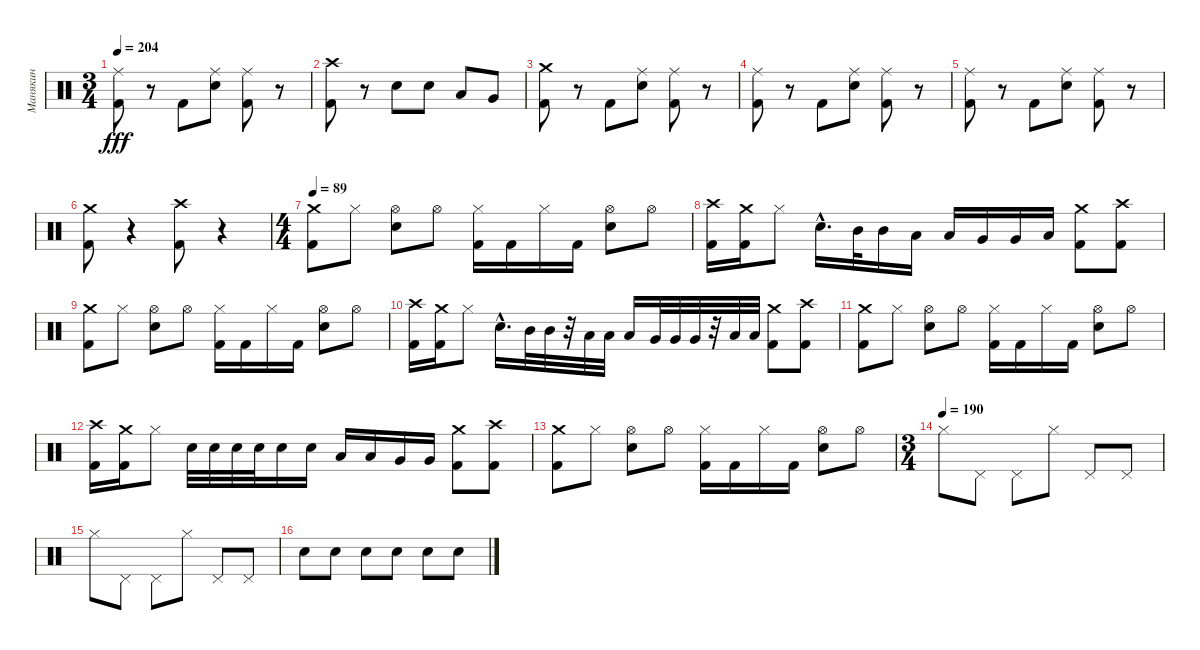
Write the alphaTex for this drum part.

\track ("Манякин" "Манякин") {instrument percussion}
\staff {score}
\articulation defaults
\ts (3 4)
\tempo 204
\clef neutral
\ks c
("Ride (middle)" "Kick (hit) 2").8{dy fff} r.8 "Kick (hit) 2".8 ("Ride (middle)" "Snare (hit) 2").8 ("Ride (middle)" "Kick (hit) 2").8 r.8 |
("Kick (hit) 2" "Crash high (hit)").8 r.8 "Snare (hit) 2".8 "Snare (hit) 2".8 "Low Tom (hit)".8 "Very Low Tom (hit)".8 |
("Kick (hit) 2" "Crash medium (hit)").8 r.8 "Kick (hit) 2".8 ("Ride (middle)" "Snare (hit) 2").8 ("Ride (middle)" "Kick (hit) 2").8 r.8 |
("Ride (middle)" "Kick (hit) 2").8 r.8 "Kick (hit) 2".8 ("Ride (middle)" "Snare (hit) 2").8 ("Ride (middle)" "Kick (hit) 2").8 r.8 |
("Ride (middle)" "Kick (hit) 2").8 r.8 "Kick (hit) 2".8 ("Ride (middle)" "Snare (hit) 2").8 ("Ride (middle)" "Kick (hit) 2").8 r.8 |
("Crash medium (hit)" "Kick (hit) 2").8 r.4 ("Kick (hit) 2" "Crash high (hit)").8 r.4 |
\ts (4 4)
\tempo 89
("Kick (hit) 2" "Crash medium (hit)").8 "Hi-Hat (closed)".8 ("Snare (hit) 2" "Hi-Hat (open)").8 "Hi-Hat (open)".8 ("Kick (hit) 2" "Hi-Hat (closed)").16 "Kick (hit) 2".16 "Hi-Hat (closed)".16 "Kick (hit) 2".16 ("Hi-Hat (open)" "Snare (hit) 2").8 "Hi-Hat (open)".8 |
("Kick (hit) 2" "Crash high (hit)").16 ("Kick (hit) 2" "Crash medium (hit)").16 "Hi-Hat (closed)".8 "Snare (hit) 2"{hac}.16{d} "Mid Tom (hit)".32 "Mid Tom (hit)".16 "Low Tom (hit)".16 "Low Tom (hit)".16 "Very Low Tom (hit)".16 "Very Low Tom (hit)".16 "Low Floor Tom (hit)".16 ("Kick (hit) 2" "Crash medium (hit)").8 ("Kick (hit) 2" "Crash high (hit)").8 |
("Kick (hit) 2" "Crash medium (hit)").8 "Hi-Hat (closed)".8 ("Snare (hit) 2" "Hi-Hat (open)").8 "Hi-Hat (open)".8 ("Kick (hit) 2" "Hi-Hat (closed)").16 "Kick (hit) 2".16 "Hi-Hat (closed)".16 "Kick (hit) 2".16 ("Hi-Hat (open)" "Snare (hit) 2").8 "Hi-Hat (open)".8 |
("Kick (hit) 2" "Crash high (hit)").16 ("Kick (hit) 2" "Crash medium (hit)").16 "Hi-Hat (closed)".8 "Snare (hit) 2"{hac}.16{d} "Mid Tom (hit)".32 "Mid Tom (hit)".32 r.32 "Low Tom (hit)".32 "Low Tom (hit)".32 "Low Tom (hit)".16 "Very Low Tom (hit)".32 "Very Low Tom (hit)".32 "Very Low Tom (hit)".32 r.32 "Low Floor Tom (hit)".32 "Low Floor Tom (hit)".32 ("Crash medium (hit)" "Kick (hit) 2").8 ("Crash high (hit)" "Kick (hit) 2").8 |
("Kick (hit) 2" "Crash medium (hit)").8 "Hi-Hat (closed)".8 ("Snare (hit) 2" "Hi-Hat (open)").8 "Hi-Hat (open)".8 ("Kick (hit) 2" "Hi-Hat (closed)").16 "Kick (hit) 2".16 "Hi-Hat (closed)".16 "Kick (hit) 2".16 ("Hi-Hat (open)" "Snare (hit) 2").8 "Hi-Hat (open)".8 |
("Kick (hit) 2" "Crash high (hit)").16 ("Kick (hit) 2" "Crash medium (hit)").16 "Hi-Hat (closed)".8 "Snare (hit) 2".32 "Snare (hit) 2".32 "Snare (hit) 2".32 "Snare (hit) 2".32 "Snare (hit) 2".16 "Snare (hit) 2".16 "Low Tom (hit)".16 "Low Tom (hit)".16 "Very Low Tom (hit)".16 "Very Low Tom (hit)".16 ("Crash medium (hit)" "Kick (hit) 2").8 ("Crash high (hit)" "Kick (hit) 2").8 |
("Kick (hit) 2" "Crash medium (hit)").8 "Hi-Hat (closed)".8 ("Snare (hit) 2" "Hi-Hat (open)").8 "Hi-Hat (open)".8 ("Kick (hit) 2" "Hi-Hat (closed)").16 "Kick (hit) 2".16 "Hi-Hat (closed)".16 "Kick (hit) 2".16 ("Hi-Hat (open)" "Snare (hit) 2").8 "Hi-Hat (open)".8 |
\ts (3 4)
\tempo (190)
"Hi-Hat (closed)".8 "Pedal Hi-Hat (hit)".8 "Pedal Hi-Hat (hit)".8 "Hi-Hat (closed)".8 "Pedal Hi-Hat (hit)".8 "Pedal Hi-Hat (hit)".8 |
"Hi-Hat (closed)".8 "Pedal Hi-Hat (hit)".8 "Pedal Hi-Hat (hit)".8 "Hi-Hat (closed)".8 "Pedal Hi-Hat (hit)".8 "Pedal Hi-Hat (hit)".8 |
"Snare (hit) 2".8 "Snare (hit) 2".8 "Snare (hit) 2".8 "Snare (hit) 2".8 "Snare (hit) 2".8 "Snare (hit) 2".8
